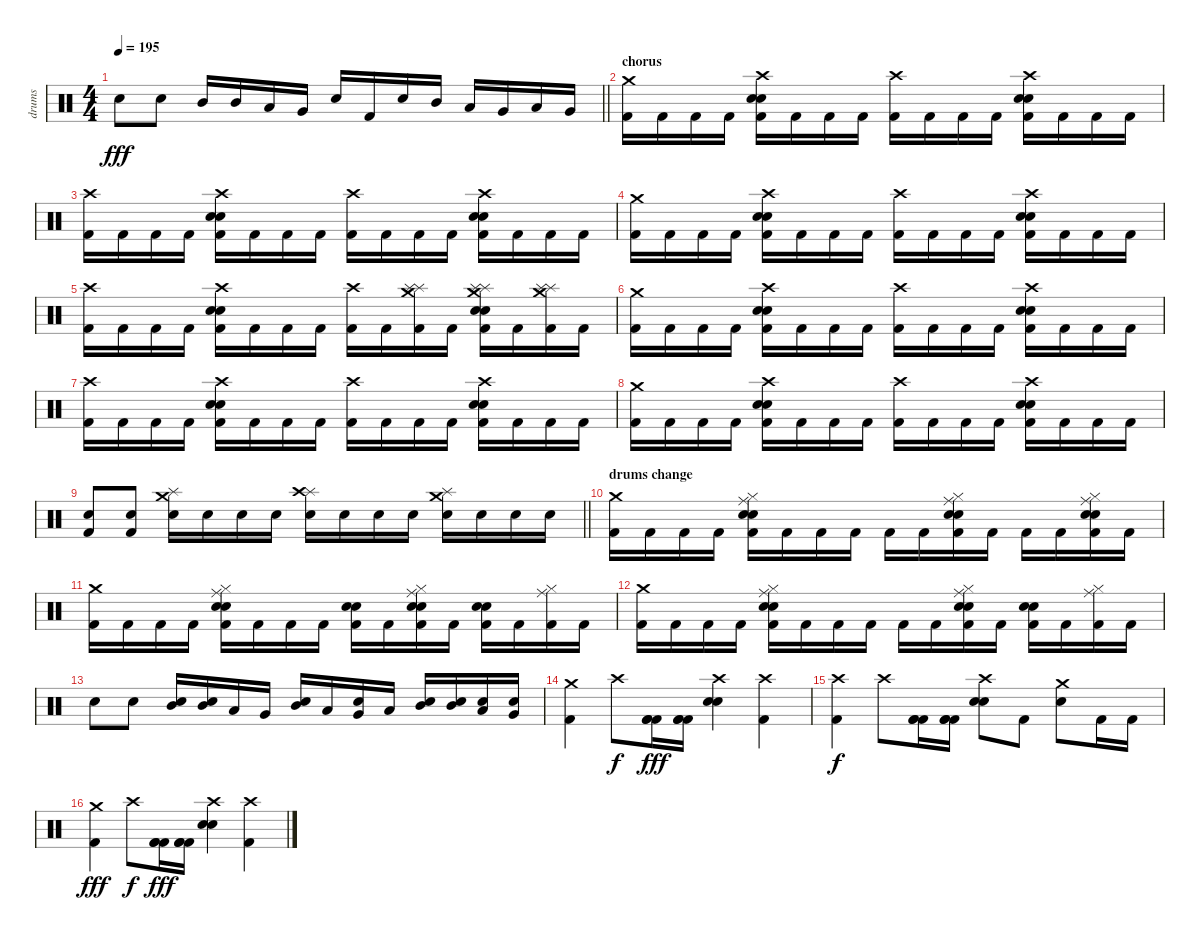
\track ("drums" "drums") {instrument percussion bank 16}
\staff {score}
\articulation defaults
\ts (4 4)
\tempo 195
\clef neutral
\barLineRight lightlight
\ks c "Electric Snare (hit)".8{dy fff} "Electric Snare (hit)".8 "Mid Tom (hit)".16 "Mid Tom (hit)".16 "Low Tom (hit)".16 "Very Low Tom (hit)".16 "Electric Snare (hit)".16 "Kick (hit) 2".16 "Electric Snare (hit)".16 "Mid Tom (hit)".16 "Low Tom (hit)".16 "Very Low Tom (hit)".16 "Low Tom (hit)".16 "Very Low Tom (hit)".16
|
\section ("" "chorus")
("Crash medium (hit)" "Kick (hit) 2").16 "Kick (hit) 2".16 "Kick (hit) 2".16 "Kick (hit) 2".16 ("Crash high (hit)" "Electric Snare (hit)" "Electric Snare (hit)" "Kick (hit) 2").16 "Kick (hit) 2".16 "Kick (hit) 2".16 "Kick (hit) 2".16 ("Crash high (hit)" "Kick (hit) 2").16 "Kick (hit) 2".16 "Kick (hit) 2".16 "Kick (hit) 2".16 ("Crash high (hit)" "Electric Snare (hit)" "Electric Snare (hit)" "Kick (hit) 2").16 "Kick (hit) 2".16 "Kick (hit) 2".16 "Kick (hit) 2".16 |
("Crash high (hit)" "Kick (hit) 2").16 "Kick (hit) 2".16 "Kick (hit) 2".16 "Kick (hit) 2".16 ("Crash high (hit)" "Electric Snare (hit)" "Electric Snare (hit)" "Kick (hit) 2").16 "Kick (hit) 2".16 "Kick (hit) 2".16 "Kick (hit) 2".16 ("Crash high (hit)" "Kick (hit) 2").16 "Kick (hit) 2".16 "Kick (hit) 2".16 "Kick (hit) 2".16 ("Crash high (hit)" "Electric Snare (hit)" "Electric Snare (hit)" "Kick (hit) 2").16 "Kick (hit) 2".16 "Kick (hit) 2".16 "Kick (hit) 2".16 |
("Crash medium (hit)" "Kick (hit) 2").16 "Kick (hit) 2".16 "Kick (hit) 2".16 "Kick (hit) 2".16 ("Crash high (hit)" "Electric Snare (hit)" "Electric Snare (hit)" "Kick (hit) 2").16 "Kick (hit) 2".16 "Kick (hit) 2".16 "Kick (hit) 2".16 ("Crash high (hit)" "Kick (hit) 2").16 "Kick (hit) 2".16 "Kick (hit) 2".16 "Kick (hit) 2".16 ("Crash high (hit)" "Electric Snare (hit)" "Electric Snare (hit)" "Kick (hit) 2").16 "Kick (hit) 2".16 "Kick (hit) 2".16 "Kick (hit) 2".16 |
("Crash high (hit)" "Kick (hit) 2").16 "Kick (hit) 2".16 "Kick (hit) 2".16 "Kick (hit) 2".16 ("Crash high (hit)" "Electric Snare (hit)" "Electric Snare (hit)" "Kick (hit) 2").16 "Kick (hit) 2".16 "Kick (hit) 2".16 "Kick (hit) 2".16 ("Crash high (hit)" "Kick (hit) 2").16 "Kick (hit) 2".16 ("Splash (hit)" "Splash (hit)" "Crash medium (hit)" "Kick (hit) 2").16 "Kick (hit) 2".16 ("Splash (hit)" "Splash (hit)" "Crash medium (hit)" "Electric Snare (hit)" "Electric Snare (hit)" "Kick (hit) 2").16 "Kick (hit) 2".16 ("Splash (hit)" "Splash (hit)" "Crash medium (hit)" "Kick (hit) 2").16 "Kick (hit) 2".16 |
("Crash medium (hit)" "Kick (hit) 2").16 "Kick (hit) 2".16 "Kick (hit) 2".16 "Kick (hit) 2".16 ("Crash high (hit)" "Electric Snare (hit)" "Electric Snare (hit)" "Kick (hit) 2").16 "Kick (hit) 2".16 "Kick (hit) 2".16 "Kick (hit) 2".16 ("Crash high (hit)" "Kick (hit) 2").16 "Kick (hit) 2".16 "Kick (hit) 2".16 "Kick (hit) 2".16 ("Crash high (hit)" "Electric Snare (hit)" "Electric Snare (hit)" "Kick (hit) 2").16 "Kick (hit) 2".16 "Kick (hit) 2".16 "Kick (hit) 2".16 |
("Crash high (hit)" "Kick (hit) 2").16 "Kick (hit) 2".16 "Kick (hit) 2".16 "Kick (hit) 2".16 ("Crash high (hit)" "Electric Snare (hit)" "Electric Snare (hit)" "Kick (hit) 2").16 "Kick (hit) 2".16 "Kick (hit) 2".16 "Kick (hit) 2".16 ("Crash high (hit)" "Kick (hit) 2").16 "Kick (hit) 2".16 "Kick (hit) 2".16 "Kick (hit) 2".16 ("Crash high (hit)" "Electric Snare (hit)" "Electric Snare (hit)" "Kick (hit) 2").16 "Kick (hit) 2".16 "Kick (hit) 2".16 "Kick (hit) 2".16 |
("Crash medium (hit)" "Kick (hit) 2").16 "Kick (hit) 2".16 "Kick (hit) 2".16 "Kick (hit) 2".16 ("Crash high (hit)" "Electric Snare (hit)" "Electric Snare (hit)" "Kick (hit) 2").16 "Kick (hit) 2".16 "Kick (hit) 2".16 "Kick (hit) 2".16 ("Crash high (hit)" "Kick (hit) 2").16 "Kick (hit) 2".16 "Kick (hit) 2".16 "Kick (hit) 2".16 ("Crash high (hit)" "Electric Snare (hit)" "Electric Snare (hit)" "Kick (hit) 2").16 "Kick (hit) 2".16 "Kick (hit) 2".16 "Kick (hit) 2".16 |
\barLineRight lightlight
("Electric Snare (hit)" "Kick (hit) 2").8 ("Electric Snare (hit)" "Kick (hit) 2").8 ("Splash (hit)" "Crash medium (hit)" "Electric Snare (hit)").16 "Electric Snare (hit)".16 "Electric Snare (hit)".16 "Electric Snare (hit)".16 ("Splash (hit)" "Crash high (hit)" "Electric Snare (hit)").16 "Electric Snare (hit)".16 "Electric Snare (hit)".16 "Electric Snare (hit)".16 ("Splash (hit)" "Crash medium (hit)" "Electric Snare (hit)").16 "Electric Snare (hit)".16 "Electric Snare (hit)".16 "Electric Snare (hit)".16 |
\section ("" "drums change")
("Crash medium (hit)" "Kick (hit) 2").16 "Kick (hit) 2".16 "Kick (hit) 2".16 "Kick (hit) 2".16 ("Hi-Hat (closed)" "Ride (middle)" "Electric Snare (hit)" "Electric Snare (hit)" "Kick (hit) 2").16 "Kick (hit) 2".16 "Kick (hit) 2".16 "Kick (hit) 2".16 "Kick (hit) 2".16 "Kick (hit) 2".16 ("Hi-Hat (closed)" "Ride (middle)" "Electric Snare (hit)" "Electric Snare (hit)" "Kick (hit) 2").16 "Kick (hit) 2".16 "Kick (hit) 2".16 "Kick (hit) 2".16 ("Hi-Hat (closed)" "Ride (middle)" "Electric Snare (hit)" "Electric Snare (hit)" "Kick (hit) 2").16 "Kick (hit) 2".16 |
("Crash medium (hit)" "Kick (hit) 2").16 "Kick (hit) 2".16 "Kick (hit) 2".16 "Kick (hit) 2".16 ("Hi-Hat (closed)" "Ride (middle)" "Electric Snare (hit)" "Electric Snare (hit)" "Kick (hit) 2").16 "Kick (hit) 2".16 "Kick (hit) 2".16 "Kick (hit) 2".16 ("Electric Snare (hit)" "Electric Snare (hit)" "Kick (hit) 2").16 "Kick (hit) 2".16 ("Hi-Hat (closed)" "Ride (middle)" "Electric Snare (hit)" "Electric Snare (hit)" "Kick (hit) 2").16 "Kick (hit) 2".16 ("Electric Snare (hit)" "Electric Snare (hit)" "Kick (hit) 2").16 "Kick (hit) 2".16 ("Hi-Hat (closed)" "Ride (middle)" "Kick (hit) 2").16 "Kick (hit) 2".16 |
("Crash medium (hit)" "Kick (hit) 2").16 "Kick (hit) 2".16 "Kick (hit) 2".16 "Kick (hit) 2".16 ("Hi-Hat (closed)" "Ride (middle)" "Electric Snare (hit)" "Electric Snare (hit)" "Kick (hit) 2").16 "Kick (hit) 2".16 "Kick (hit) 2".16 "Kick (hit) 2".16 "Kick (hit) 2".16 "Kick (hit) 2".16 ("Hi-Hat (closed)" "Ride (middle)" "Electric Snare (hit)" "Electric Snare (hit)" "Kick (hit) 2").16 "Kick (hit) 2".16 ("Electric Snare (hit)" "Electric Snare (hit)" "Kick (hit) 2").16 "Kick (hit) 2".16 ("Hi-Hat (closed)" "Ride (middle)" "Kick (hit) 2").16 "Kick (hit) 2".16 |
"Electric Snare (hit)".8 "Electric Snare (hit)".8 ("Mid Tom (hit)" "Electric Snare (hit)").16 ("Mid Tom (hit)" "Electric Snare (hit)").16 "Low Tom (hit)".16 "Very Low Tom (hit)".16 ("Electric Snare (hit)" "Mid Tom (hit)").16 "Low Tom (hit)".16 ("Electric Snare (hit)" "Very Low Tom (hit)").16 "Low Tom (hit)".16 ("Mid Tom (hit)" "Electric Snare (hit)").16 ("Mid Tom (hit)" "Electric Snare (hit)").16 ("Low Tom (hit)" "Electric Snare (hit)").16 ("Very Low Tom (hit)" "Electric Snare (hit)").16 |
("Crash medium (hit)" "Kick (hit) 2").4 "Crash high (hit)".8{dy f} ("Kick (hit) 2" "Kick (hit) 2" "Kick (hit) 2").16{dy fff} ("Kick (hit) 2" "Kick (hit) 2" "Kick (hit) 2").16 ("Crash high (hit)" "Electric Snare (hit)" "Electric Snare (hit)").4 ("Crash high (hit)" "Kick (hit) 2").4 |
("Crash high (hit)" "Kick (hit) 2").4{dy f} "Crash high (hit)".8 ("Kick (hit) 2" "Kick (hit) 2" "Kick (hit) 2").16 ("Kick (hit) 2" "Kick (hit) 2" "Kick (hit) 2").16 ("Crash high (hit)" "Electric Snare (hit)" "Electric Snare (hit)").8 "Kick (hit) 2".8 ("Crash medium (hit)" "Electric Snare (hit)").8 "Kick (hit) 2".16 "Kick (hit) 2".16 |
("Crash medium (hit)" "Kick (hit) 2").4{dy fff} "Crash high (hit)".8{dy f} ("Kick (hit) 2" "Kick (hit) 2" "Kick (hit) 2").16{dy fff} ("Kick (hit) 2" "Kick (hit) 2" "Kick (hit) 2").16 ("Crash high (hit)" "Electric Snare (hit)" "Electric Snare (hit)").4 ("Crash high (hit)" "Kick (hit) 2").4
